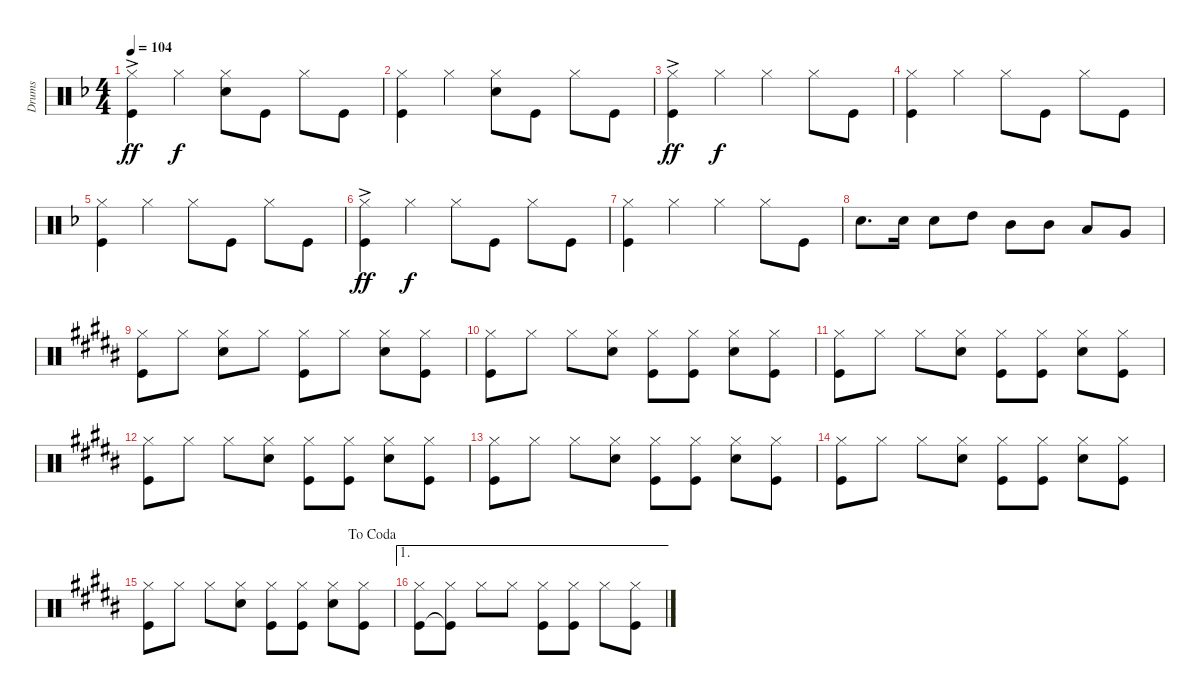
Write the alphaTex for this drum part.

\track ("Drums" "Drums") {instrument percussion}
\staff {score}
\articulation defaults
\ts (4 4)
\tempo 104
\clef neutral
\ks f
("Hi-Hat (closed)"{ac} "Kick (hit)").4{dy ff} "Hi-Hat (closed)".4{dy f} ("Hi-Hat (closed)" "Snare (hit) 2").8 "Kick (hit)".8 "Hi-Hat (closed)".8 "Kick (hit)".8 |
("Hi-Hat (closed)" "Kick (hit)").4 "Hi-Hat (closed)".4 ("Hi-Hat (closed)" "Snare (hit) 2").8 "Kick (hit)".8 "Hi-Hat (closed)".8 "Kick (hit)".8 |
("Hi-Hat (closed)"{ac} "Kick (hit)").4{dy ff} "Hi-Hat (closed)".4{dy f} "Hi-Hat (closed)".4 "Hi-Hat (closed)".8 "Kick (hit)".8 |
("Hi-Hat (closed)" "Kick (hit)").4 "Hi-Hat (closed)".4 "Hi-Hat (closed)".8 "Kick (hit)".8 "Hi-Hat (closed)".8 "Kick (hit)".8 |
("Hi-Hat (closed)" "Kick (hit)").4 "Hi-Hat (closed)".4 "Hi-Hat (closed)".8 "Kick (hit)".8 "Hi-Hat (closed)".8 "Kick (hit)".8 |
("Hi-Hat (closed)"{ac} "Kick (hit)").4{dy ff} "Hi-Hat (closed)".4{dy f} "Hi-Hat (closed)".8 "Kick (hit)".8 "Hi-Hat (closed)".8 "Kick (hit)".8 |
("Hi-Hat (closed)" "Kick (hit)").4 "Hi-Hat (closed)".4 "Hi-Hat (closed)".4 "Hi-Hat (closed)".8 "Kick (hit)".8 |
"Snare (hit) 2".8{d} "Snare (hit) 2".16 "Snare (hit) 2".8 "High Tom (hit)".8 "Mid Tom (hit)".8 "Mid Tom (hit)".8 "Low Tom (hit)".8 "Very Low Tom (hit)".8 |
\ks b
("Hi-Hat (closed)" "Kick (hit)").8 "Hi-Hat (closed)".8 ("Hi-Hat (closed)" "Snare (hit) 2").8 "Hi-Hat (closed)".8 ("Hi-Hat (closed)" "Kick (hit)").8 "Hi-Hat (closed)".8 ("Hi-Hat (closed)" "Snare (hit) 2").8 ("Hi-Hat (closed)" "Kick (hit)").8 |
("Hi-Hat (closed)" "Kick (hit)").8 "Hi-Hat (closed)".8 "Hi-Hat (closed)".8 ("Hi-Hat (closed)" "Snare (hit) 2").8 ("Hi-Hat (closed)" "Kick (hit)").8 ("Hi-Hat (closed)" "Kick (hit)").8 ("Hi-Hat (closed)" "Snare (hit) 2").8 ("Hi-Hat (closed)" "Kick (hit)").8 |
("Hi-Hat (closed)" "Kick (hit)").8 "Hi-Hat (closed)".8 "Hi-Hat (closed)".8 ("Hi-Hat (closed)" "Snare (hit) 2").8 ("Hi-Hat (closed)" "Kick (hit)").8 ("Hi-Hat (closed)" "Kick (hit)").8 ("Hi-Hat (closed)" "Snare (hit) 2").8 ("Hi-Hat (closed)" "Kick (hit)").8 |
("Hi-Hat (closed)" "Kick (hit)").8 "Hi-Hat (closed)".8 "Hi-Hat (closed)".8 ("Hi-Hat (closed)" "Snare (hit) 2").8 ("Hi-Hat (closed)" "Kick (hit)").8 ("Hi-Hat (closed)" "Kick (hit)").8 ("Hi-Hat (closed)" "Snare (hit) 2").8 ("Hi-Hat (closed)" "Kick (hit)").8 |
("Hi-Hat (closed)" "Kick (hit)").8 "Hi-Hat (closed)".8 "Hi-Hat (closed)".8 ("Hi-Hat (closed)" "Snare (hit) 2").8 ("Hi-Hat (closed)" "Kick (hit)").8 ("Hi-Hat (closed)" "Kick (hit)").8 ("Hi-Hat (closed)" "Snare (hit) 2").8 ("Hi-Hat (closed)" "Kick (hit)").8 |
("Hi-Hat (closed)" "Kick (hit)").8 "Hi-Hat (closed)".8 "Hi-Hat (closed)".8 ("Hi-Hat (closed)" "Snare (hit) 2").8 ("Hi-Hat (closed)" "Kick (hit)").8 ("Hi-Hat (closed)" "Kick (hit)").8 ("Hi-Hat (closed)" "Snare (hit) 2").8 ("Hi-Hat (closed)" "Kick (hit)").8 |
\jump dacoda
("Hi-Hat (closed)" "Kick (hit)").8 "Hi-Hat (closed)".8 "Hi-Hat (closed)".8 ("Hi-Hat (closed)" "Snare (hit) 2").8 ("Hi-Hat (closed)" "Kick (hit)").8 ("Hi-Hat (closed)" "Kick (hit)").8 ("Hi-Hat (closed)" "Snare (hit) 2").8 ("Hi-Hat (closed)" "Kick (hit)").8 |
\ae 1
("Hi-Hat (closed)" "Kick (hit)").8 ("Hi-Hat (closed)" "Kick (hit)"{t}).8 "Hi-Hat (closed)".8 "Hi-Hat (closed)".8 ("Hi-Hat (closed)" "Kick (hit)").8 ("Hi-Hat (closed)" "Kick (hit)").8 "Hi-Hat (closed)".8 ("Hi-Hat (closed)" "Kick (hit)").8
